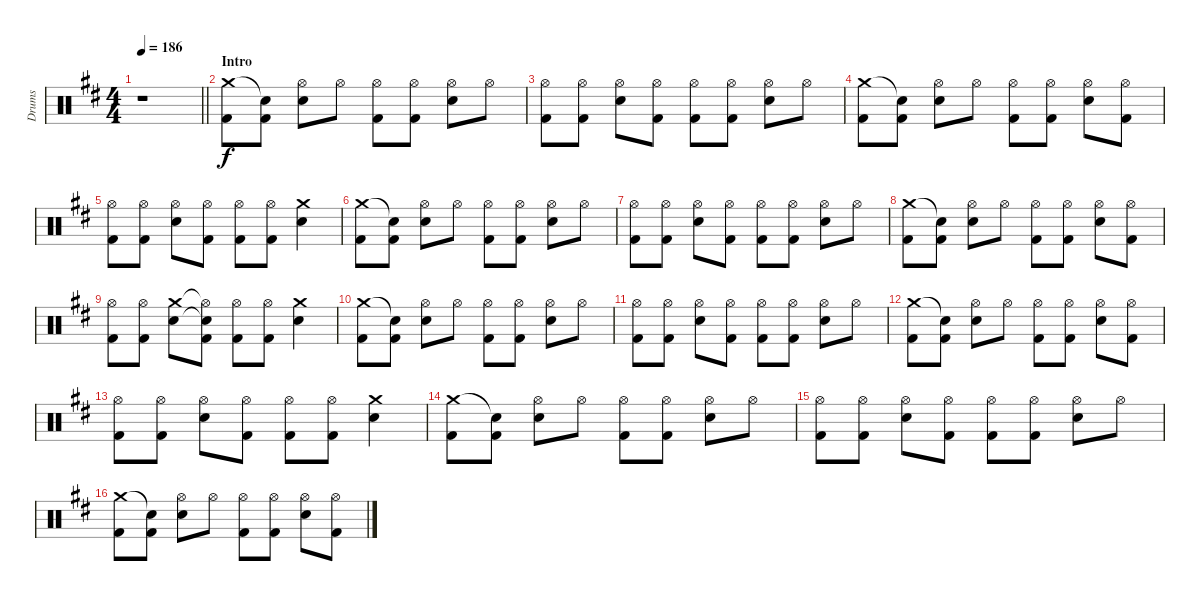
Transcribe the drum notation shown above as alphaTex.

\track ("Drums" "Drums") {instrument percussion}
\staff {score}
\articulation defaults
\ts (4 4)
\tempo 186
\clef neutral
\barLineRight lightlight
\ks d
r.1{dy f} |
\section ("" "Intro")
("Crash medium (hit)" "Kick (hit) 2").8 ("Snare (hit)"{t} "Kick (hit) 2").8 ("Hi-Hat (open)" "Electric Snare (hit)").8 "Hi-Hat (open)".8 ("Hi-Hat (open)" "Kick (hit) 2").8 ("Hi-Hat (open)" "Kick (hit) 2").8 ("Hi-Hat (open)" "Electric Snare (hit)").8 "Hi-Hat (open)".8 |
("Hi-Hat (open)" "Kick (hit) 2").8 ("Hi-Hat (open)" "Kick (hit) 2").8 ("Hi-Hat (open)" "Electric Snare (hit)").8 ("Hi-Hat (open)" "Kick (hit) 2").8 ("Hi-Hat (open)" "Kick (hit) 2").8 ("Hi-Hat (open)" "Kick (hit) 2").8 ("Hi-Hat (open)" "Electric Snare (hit)").8 "Hi-Hat (open)".8 |
("Crash medium (hit)" "Kick (hit) 2").8 ("Snare (hit)"{t} "Kick (hit) 2").8 ("Hi-Hat (open)" "Electric Snare (hit)").8 "Hi-Hat (open)".8 ("Hi-Hat (open)" "Kick (hit) 2").8 ("Hi-Hat (open)" "Kick (hit) 2").8 ("Hi-Hat (open)" "Electric Snare (hit)").8 ("Hi-Hat (open)" "Kick (hit) 2").8 |
("Hi-Hat (open)" "Kick (hit) 2").8 ("Hi-Hat (open)" "Kick (hit) 2").8 ("Hi-Hat (open)" "Electric Snare (hit)").8 ("Hi-Hat (open)" "Kick (hit) 2").8 ("Hi-Hat (open)" "Kick (hit) 2").8 ("Hi-Hat (open)" "Kick (hit) 2").8 ("Crash medium (hit)" "Electric Snare (hit)").4 |
("Crash medium (hit)" "Kick (hit) 2").8 ("Snare (hit)"{t} "Kick (hit) 2").8 ("Hi-Hat (open)" "Electric Snare (hit)").8 "Hi-Hat (open)".8 ("Hi-Hat (open)" "Kick (hit) 2").8 ("Hi-Hat (open)" "Kick (hit) 2").8 ("Hi-Hat (open)" "Electric Snare (hit)").8 "Hi-Hat (open)".8 |
("Hi-Hat (open)" "Kick (hit) 2").8 ("Hi-Hat (open)" "Kick (hit) 2").8 ("Hi-Hat (open)" "Electric Snare (hit)").8 ("Hi-Hat (open)" "Kick (hit) 2").8 ("Hi-Hat (open)" "Kick (hit) 2").8 ("Hi-Hat (open)" "Kick (hit) 2").8 ("Hi-Hat (open)" "Electric Snare (hit)").8 "Hi-Hat (open)".8 |
("Crash medium (hit)" "Kick (hit) 2").8 ("Snare (hit)"{t} "Kick (hit) 2").8 ("Hi-Hat (open)" "Electric Snare (hit)").8 "Hi-Hat (open)".8 ("Hi-Hat (open)" "Kick (hit) 2").8 ("Hi-Hat (open)" "Kick (hit) 2").8 ("Hi-Hat (open)" "Electric Snare (hit)").8 ("Hi-Hat (open)" "Kick (hit) 2").8 |
("Hi-Hat (open)" "Kick (hit) 2").8 ("Hi-Hat (open)" "Kick (hit) 2").8 ("Crash medium (hit)" "Electric Snare (hit)").8 ("Hi-Hat (open)"{t} "Snare (hit)"{t} "Kick (hit) 2").8 ("Hi-Hat (open)" "Kick (hit) 2").8 ("Hi-Hat (open)" "Kick (hit) 2").8 ("Crash medium (hit)" "Electric Snare (hit)").4 |
("Crash medium (hit)" "Kick (hit) 2").8 ("Snare (hit)"{t} "Kick (hit) 2").8 ("Hi-Hat (open)" "Electric Snare (hit)").8 "Hi-Hat (open)".8 ("Hi-Hat (open)" "Kick (hit) 2").8 ("Hi-Hat (open)" "Kick (hit) 2").8 ("Hi-Hat (open)" "Electric Snare (hit)").8 "Hi-Hat (open)".8 |
("Hi-Hat (open)" "Kick (hit) 2").8 ("Hi-Hat (open)" "Kick (hit) 2").8 ("Hi-Hat (open)" "Electric Snare (hit)").8 ("Hi-Hat (open)" "Kick (hit) 2").8 ("Hi-Hat (open)" "Kick (hit) 2").8 ("Hi-Hat (open)" "Kick (hit) 2").8 ("Hi-Hat (open)" "Electric Snare (hit)").8 "Hi-Hat (open)".8 |
("Crash medium (hit)" "Kick (hit) 2").8 ("Snare (hit)"{t} "Kick (hit) 2").8 ("Hi-Hat (open)" "Electric Snare (hit)").8 "Hi-Hat (open)".8 ("Hi-Hat (open)" "Kick (hit) 2").8 ("Hi-Hat (open)" "Kick (hit) 2").8 ("Hi-Hat (open)" "Electric Snare (hit)").8 ("Hi-Hat (open)" "Kick (hit) 2").8 |
("Hi-Hat (open)" "Kick (hit) 2").8 ("Hi-Hat (open)" "Kick (hit) 2").8 ("Hi-Hat (open)" "Electric Snare (hit)").8 ("Hi-Hat (open)" "Kick (hit) 2").8 ("Hi-Hat (open)" "Kick (hit) 2").8 ("Hi-Hat (open)" "Kick (hit) 2").8 ("Crash medium (hit)" "Electric Snare (hit)").4 |
("Crash medium (hit)" "Kick (hit) 2").8 ("Snare (hit)"{t} "Kick (hit) 2").8 ("Hi-Hat (open)" "Electric Snare (hit)").8 "Hi-Hat (open)".8 ("Hi-Hat (open)" "Kick (hit) 2").8 ("Hi-Hat (open)" "Kick (hit) 2").8 ("Hi-Hat (open)" "Electric Snare (hit)").8 "Hi-Hat (open)".8 |
("Hi-Hat (open)" "Kick (hit) 2").8 ("Hi-Hat (open)" "Kick (hit) 2").8 ("Hi-Hat (open)" "Electric Snare (hit)").8 ("Hi-Hat (open)" "Kick (hit) 2").8 ("Hi-Hat (open)" "Kick (hit) 2").8 ("Hi-Hat (open)" "Kick (hit) 2").8 ("Hi-Hat (open)" "Electric Snare (hit)").8 "Hi-Hat (open)".8 |
("Crash medium (hit)" "Kick (hit) 2").8 ("Snare (hit)"{t} "Kick (hit) 2").8 ("Hi-Hat (open)" "Electric Snare (hit)").8 "Hi-Hat (open)".8 ("Hi-Hat (open)" "Kick (hit) 2").8 ("Hi-Hat (open)" "Kick (hit) 2").8 ("Hi-Hat (open)" "Electric Snare (hit)").8 ("Hi-Hat (open)" "Kick (hit) 2").8
